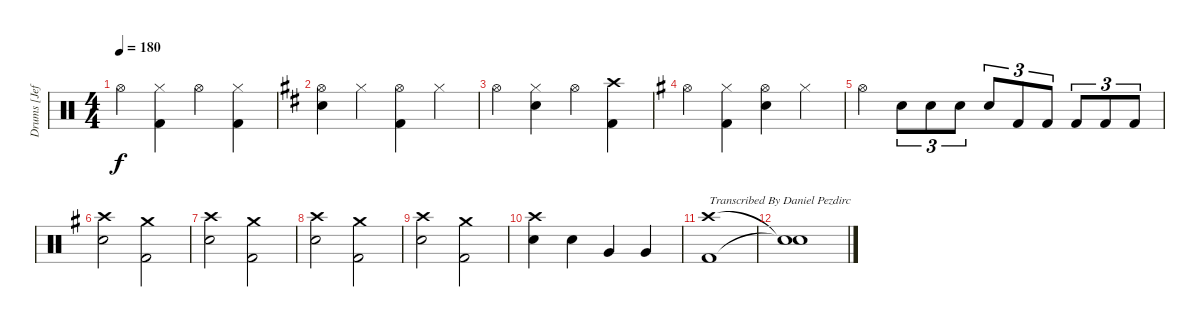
\track ("Drums [Jeff]" "Drums [Jef") {instrument percussion}
\staff {score}
\articulation defaults
\ts (4 4)
\tempo 180
\clef neutral
\ks c "Hi-Hat (open)".4{dy f}
("Hi-Hat (closed)" "Kick (hit) 2").4 "Hi-Hat (open)".4 ("Hi-Hat (closed)" "Kick (hit) 2").4 |
\ks d
("Hi-Hat (open)" "Electric Snare (hit)").4 "Hi-Hat (closed)".4 ("Hi-Hat (open)" "Kick (hit) 2").4 "Hi-Hat (closed)".4 |
"Hi-Hat (open)".4 ("Hi-Hat (closed)" "Electric Snare (hit)").4 "Hi-Hat (open)".4 ("Crash high (hit)" "Kick (hit) 2").4 |
\ks g "Hi-Hat (open)".4
("Hi-Hat (closed)" "Kick (hit) 2").4 ("Hi-Hat (open)" "Electric Snare (hit)").4 "Hi-Hat (closed)".4 |
"Hi-Hat (open)".4 "Electric Snare (hit)".8{tu (3 2)} "Electric Snare (hit)".8{tu (3 2)} "Electric Snare (hit)".8{tu (3 2)} "Electric Snare (hit)".8{tu (3 2)} "Kick (hit) 2".8{tu (3 2)} "Kick (hit) 2".8{tu (3 2)} "Kick (hit) 2".8{tu (3 2)} "Kick (hit) 2".8{tu (3 2)} "Kick (hit) 2".8{tu (3 2)} |
("Crash high (hit)" "Electric Snare (hit)").2 ("Crash medium (hit)" "Kick (hit) 2").2 |
("Crash high (hit)" "Electric Snare (hit)").2 ("Crash medium (hit)" "Kick (hit) 2").2 |
("Crash high (hit)" "Electric Snare (hit)").2 ("Crash medium (hit)" "Kick (hit) 2").2 |
("Crash high (hit)" "Electric Snare (hit)").2 ("Crash medium (hit)" "Kick (hit) 2").2 |
("Crash high (hit)" "Electric Snare (hit)").4 "Electric Snare (hit)".4 "Very Low Tom (hit)".4 "Very Low Tom (hit)".4 |
("Crash high (hit)" "Kick (hit) 2").1{txt "Transcribed By Daniel Pezdirc"} |
("Snare (hit)"{t} "Snare (hit)"{t}).1
